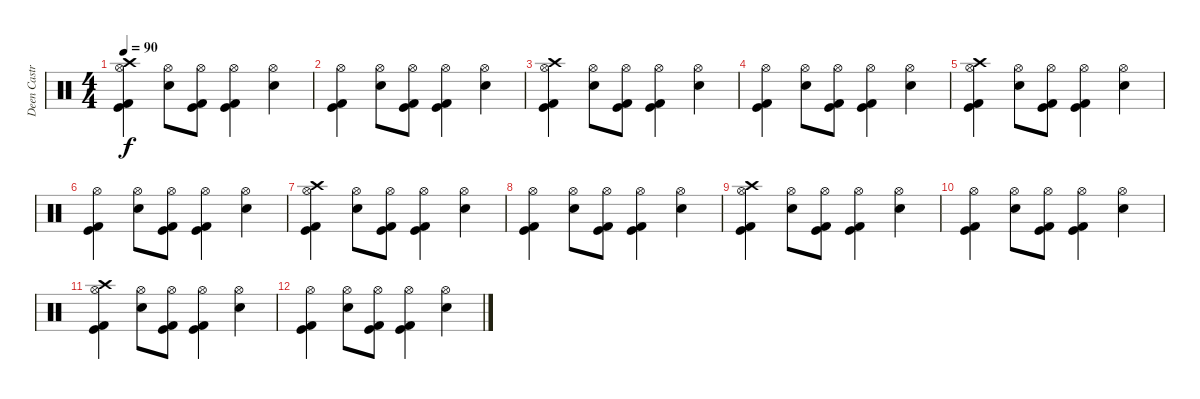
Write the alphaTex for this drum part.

\track ("Deen Castronovo" "Deen Castr") {instrument percussion}
\staff {score}
\articulation defaults
\ts (4 4)
\tempo 90
\clef neutral
\ks c
("Crash high (hit)" "Hi-Hat (open)" "Kick (hit) 2" "Kick (hit)").4{dy f} ("Snare (hit) 2" "Hi-Hat (open)").8 ("Hi-Hat (open)" "Kick (hit) 2" "Kick (hit)").8 ("Hi-Hat (open)" "Kick (hit) 2" "Kick (hit)").4 ("Snare (hit) 2" "Hi-Hat (open)").4 |
("Hi-Hat (open)" "Kick (hit) 2" "Kick (hit)").4 ("Snare (hit) 2" "Hi-Hat (open)").8 ("Hi-Hat (open)" "Kick (hit) 2" "Kick (hit)").8 ("Hi-Hat (open)" "Kick (hit) 2" "Kick (hit)").4 ("Snare (hit) 2" "Hi-Hat (open)").4 |
("Crash high (hit)" "Hi-Hat (open)" "Kick (hit) 2" "Kick (hit)").4 ("Snare (hit) 2" "Hi-Hat (open)").8 ("Hi-Hat (open)" "Kick (hit) 2" "Kick (hit)").8 ("Hi-Hat (open)" "Kick (hit) 2" "Kick (hit)").4 ("Snare (hit) 2" "Hi-Hat (open)").4 |
("Hi-Hat (open)" "Kick (hit) 2" "Kick (hit)").4 ("Snare (hit) 2" "Hi-Hat (open)").8 ("Hi-Hat (open)" "Kick (hit) 2" "Kick (hit)").8 ("Hi-Hat (open)" "Kick (hit) 2" "Kick (hit)").4 ("Snare (hit) 2" "Hi-Hat (open)").4 |
("Crash high (hit)" "Hi-Hat (open)" "Kick (hit) 2" "Kick (hit)").4{volume 5} ("Snare (hit) 2" "Hi-Hat (open)").8 ("Hi-Hat (open)" "Kick (hit) 2" "Kick (hit)").8 ("Hi-Hat (open)" "Kick (hit) 2" "Kick (hit)").4 ("Snare (hit) 2" "Hi-Hat (open)").4 |
("Hi-Hat (open)" "Kick (hit) 2" "Kick (hit)").4 ("Snare (hit) 2" "Hi-Hat (open)").8 ("Hi-Hat (open)" "Kick (hit) 2" "Kick (hit)").8 ("Hi-Hat (open)" "Kick (hit) 2" "Kick (hit)").4 ("Snare (hit) 2" "Hi-Hat (open)").4 |
("Crash high (hit)" "Hi-Hat (open)" "Kick (hit) 2" "Kick (hit)").4 ("Snare (hit) 2" "Hi-Hat (open)").8 ("Hi-Hat (open)" "Kick (hit) 2" "Kick (hit)").8 ("Hi-Hat (open)" "Kick (hit) 2" "Kick (hit)").4 ("Snare (hit) 2" "Hi-Hat (open)").4 |
("Hi-Hat (open)" "Kick (hit) 2" "Kick (hit)").4 ("Snare (hit) 2" "Hi-Hat (open)").8 ("Hi-Hat (open)" "Kick (hit) 2" "Kick (hit)").8 ("Hi-Hat (open)" "Kick (hit) 2" "Kick (hit)").4 ("Snare (hit) 2" "Hi-Hat (open)").4 |
("Crash high (hit)" "Hi-Hat (open)" "Kick (hit) 2" "Kick (hit)").4 ("Snare (hit) 2" "Hi-Hat (open)").8 ("Hi-Hat (open)" "Kick (hit) 2" "Kick (hit)").8 ("Hi-Hat (open)" "Kick (hit) 2" "Kick (hit)").4 ("Snare (hit) 2" "Hi-Hat (open)").4 |
("Hi-Hat (open)" "Kick (hit) 2" "Kick (hit)").4 ("Snare (hit) 2" "Hi-Hat (open)").8 ("Hi-Hat (open)" "Kick (hit) 2" "Kick (hit)").8 ("Hi-Hat (open)" "Kick (hit) 2" "Kick (hit)").4 ("Snare (hit) 2" "Hi-Hat (open)").4 |
("Crash high (hit)" "Hi-Hat (open)" "Kick (hit) 2" "Kick (hit)").4 ("Snare (hit) 2" "Hi-Hat (open)").8 ("Hi-Hat (open)" "Kick (hit) 2" "Kick (hit)").8 ("Hi-Hat (open)" "Kick (hit) 2" "Kick (hit)").4 ("Snare (hit) 2" "Hi-Hat (open)").4 |
("Hi-Hat (open)" "Kick (hit) 2" "Kick (hit)").4 ("Snare (hit) 2" "Hi-Hat (open)").8 ("Hi-Hat (open)" "Kick (hit) 2" "Kick (hit)").8 ("Hi-Hat (open)" "Kick (hit) 2" "Kick (hit)").4 ("Snare (hit) 2" "Hi-Hat (open)").4
